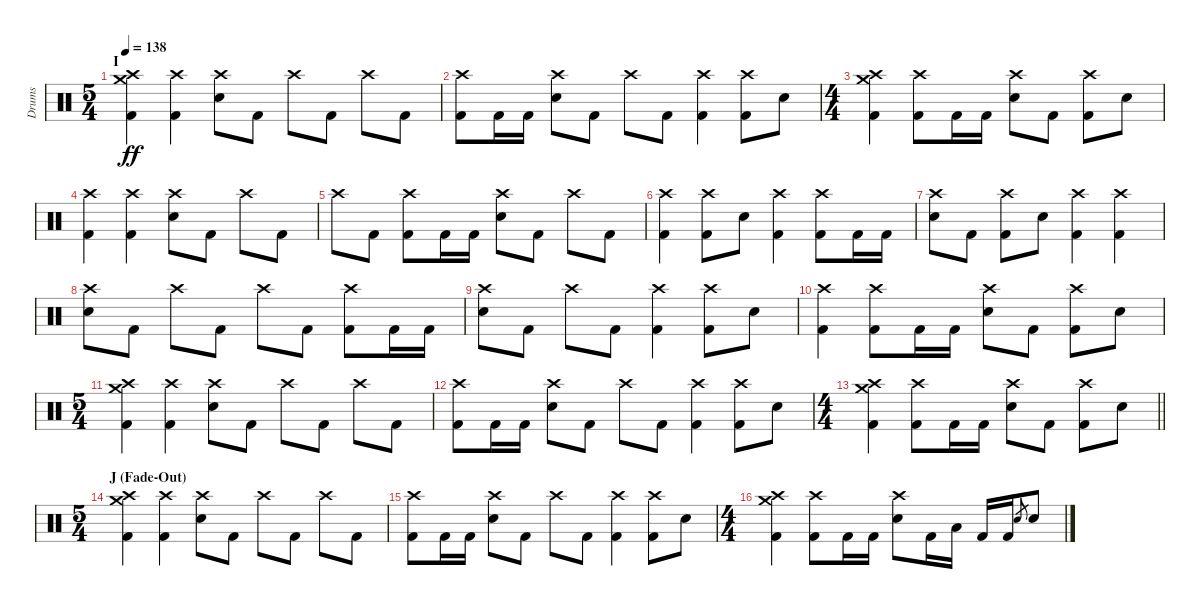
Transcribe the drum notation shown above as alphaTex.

\track ("Drums" "Drums") {instrument percussion}
\staff {score}
\articulation defaults
\ts (5 4)
\section ("" "I")
\tempo 138
\clef neutral
\ks c
("Crash medium (hit)" "Crash high (hit)" "Kick (hit) 2").4{dy ff} ("Crash high (hit)" "Kick (hit) 2").4 ("Crash high (hit)" "Electric Snare (hit)").8 "Kick (hit) 2".8 "Crash high (hit)".8 "Kick (hit) 2".8 "Crash high (hit)".8 "Kick (hit) 2".8 |
("Crash high (hit)" "Kick (hit) 2").8 "Kick (hit) 2".16 "Kick (hit) 2".16 ("Crash high (hit)" "Electric Snare (hit)").8 "Kick (hit) 2".8 "Crash high (hit)".8 "Kick (hit) 2".8 ("Crash high (hit)" "Kick (hit) 2").4 ("Crash high (hit)" "Kick (hit) 2").8 "Electric Snare (hit)".8 |
\ts (4 4)
("Crash medium (hit)" "Crash high (hit)" "Kick (hit) 2").4 ("Crash high (hit)" "Kick (hit) 2").8 "Kick (hit) 2".16 "Kick (hit) 2".16 ("Crash high (hit)" "Electric Snare (hit)").8 "Kick (hit) 2".8 ("Crash high (hit)" "Kick (hit) 2").8 "Electric Snare (hit)".8 |
("Crash high (hit)" "Kick (hit) 2").4 ("Crash high (hit)" "Kick (hit) 2").4 ("Crash high (hit)" "Electric Snare (hit)").8 "Kick (hit) 2".8 "Crash high (hit)".8 "Kick (hit) 2".8 |
"Crash high (hit)".8 "Kick (hit) 2".8 ("Crash high (hit)" "Kick (hit) 2").8 "Kick (hit) 2".16 "Kick (hit) 2".16 ("Crash high (hit)" "Electric Snare (hit)").8 "Kick (hit) 2".8 "Crash high (hit)".8 "Kick (hit) 2".8 |
("Crash high (hit)" "Kick (hit) 2").4 ("Crash high (hit)" "Kick (hit) 2").8 "Electric Snare (hit)".8 ("Crash high (hit)" "Kick (hit) 2").4 ("Crash high (hit)" "Kick (hit) 2").8 "Kick (hit) 2".16 "Kick (hit) 2".16 |
("Crash high (hit)" "Electric Snare (hit)").8 "Kick (hit) 2".8 ("Crash high (hit)" "Kick (hit) 2").8 "Electric Snare (hit)".8 ("Crash high (hit)" "Kick (hit) 2").4 ("Crash high (hit)" "Kick (hit) 2").4 |
("Crash high (hit)" "Electric Snare (hit)").8 "Kick (hit) 2".8 "Crash high (hit)".8 "Kick (hit) 2".8 "Crash high (hit)".8 "Kick (hit) 2".8 ("Crash high (hit)" "Kick (hit) 2").8 "Kick (hit) 2".16 "Kick (hit) 2".16 |
("Crash high (hit)" "Electric Snare (hit)").8 "Kick (hit) 2".8 "Crash high (hit)".8 "Kick (hit) 2".8 ("Crash high (hit)" "Kick (hit) 2").4 ("Crash high (hit)" "Kick (hit) 2").8 "Electric Snare (hit)".8 |
("Crash high (hit)" "Kick (hit) 2").4 ("Crash high (hit)" "Kick (hit) 2").8 "Kick (hit) 2".16 "Kick (hit) 2".16 ("Crash high (hit)" "Electric Snare (hit)").8 "Kick (hit) 2".8 ("Crash high (hit)" "Kick (hit) 2").8 "Electric Snare (hit)".8 |
\ts (5 4)
("Crash medium (hit)" "Crash high (hit)" "Kick (hit) 2").4 ("Crash high (hit)" "Kick (hit) 2").4 ("Crash high (hit)" "Electric Snare (hit)").8 "Kick (hit) 2".8 "Crash high (hit)".8 "Kick (hit) 2".8 "Crash high (hit)".8 "Kick (hit) 2".8 |
("Crash high (hit)" "Kick (hit) 2").8 "Kick (hit) 2".16 "Kick (hit) 2".16 ("Crash high (hit)" "Electric Snare (hit)").8 "Kick (hit) 2".8 "Crash high (hit)".8 "Kick (hit) 2".8 ("Crash high (hit)" "Kick (hit) 2").4 ("Crash high (hit)" "Kick (hit) 2").8 "Electric Snare (hit)".8 |
\ts (4 4)
\barLineRight lightlight
("Crash medium (hit)" "Crash high (hit)" "Kick (hit) 2").4 ("Crash high (hit)" "Kick (hit) 2").8 "Kick (hit) 2".16 "Kick (hit) 2".16 ("Crash high (hit)" "Electric Snare (hit)").8 "Kick (hit) 2".8 ("Crash high (hit)" "Kick (hit) 2").8 "Electric Snare (hit)".8 |
\ts (5 4)
\section ("" "J (Fade-Out)")
("Crash medium (hit)" "Crash high (hit)" "Kick (hit) 2").4{volume 10} ("Crash high (hit)" "Kick (hit) 2").4 ("Crash high (hit)" "Electric Snare (hit)").8 "Kick (hit) 2".8 "Crash high (hit)".8 "Kick (hit) 2".8 "Crash high (hit)".8 "Kick (hit) 2".8 |
("Crash high (hit)" "Kick (hit) 2").8 "Kick (hit) 2".16 "Kick (hit) 2".16 ("Crash high (hit)" "Electric Snare (hit)").8 "Kick (hit) 2".8 "Crash high (hit)".8 "Kick (hit) 2".8 ("Crash high (hit)" "Kick (hit) 2").4 ("Crash high (hit)" "Kick (hit) 2").8 "Electric Snare (hit)".8 |
\ts (4 4)
("Crash medium (hit)" "Crash high (hit)" "Kick (hit) 2").4 ("Crash high (hit)" "Kick (hit) 2").8 "Kick (hit) 2".16 "Kick (hit) 2".16 ("Crash high (hit)" "Electric Snare (hit)").8 "Kick (hit) 2".16 "Low Tom (hit)".16 "Kick (hit) 2".16 "Kick (hit) 2".16 "Electric Snare (hit)".8{gr} "Electric Snare (hit)".8
